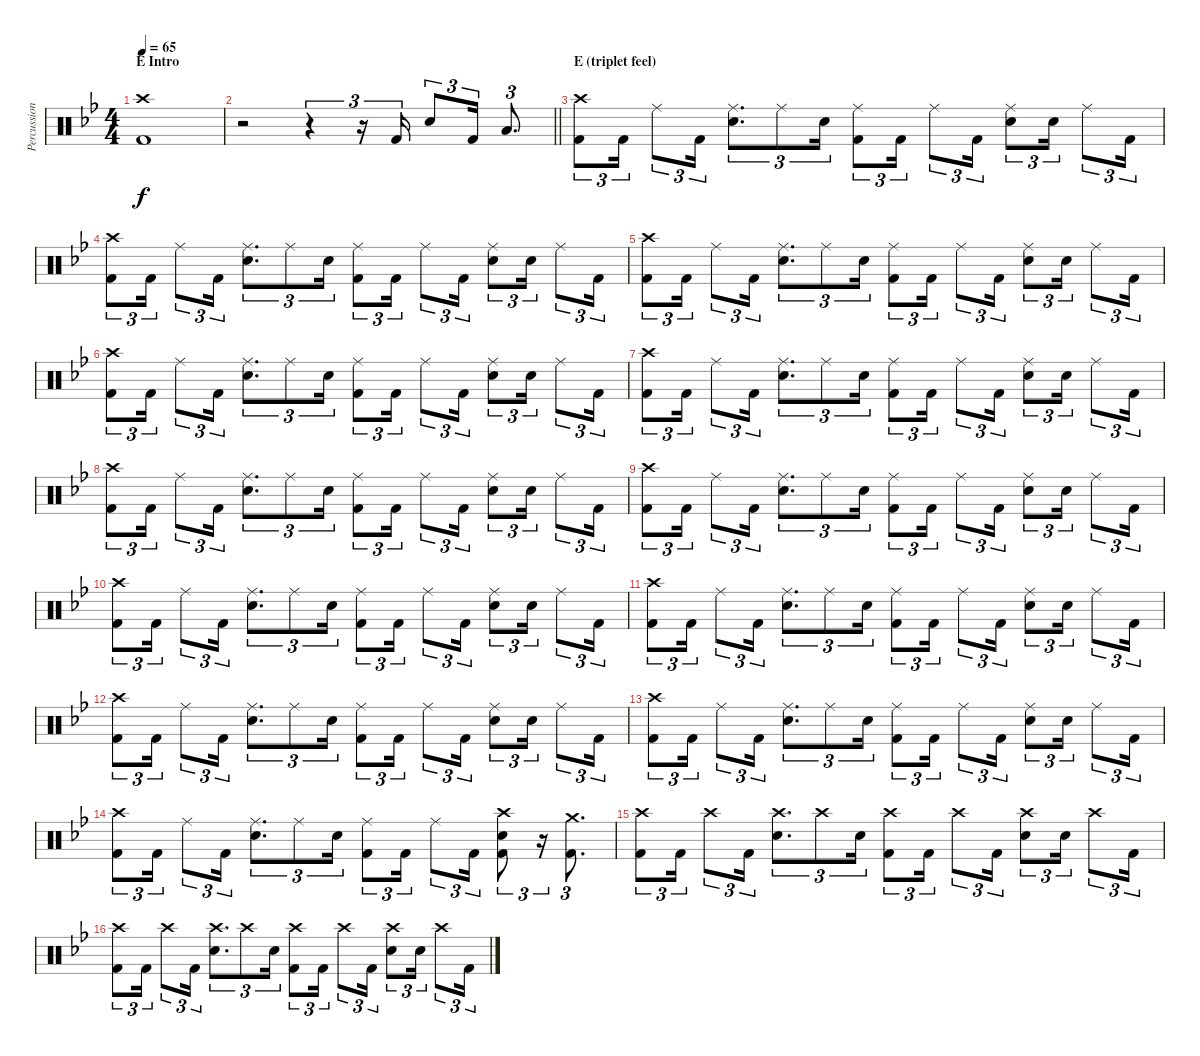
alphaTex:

\track ("Percussion" "Percussion") {instrument percussion}
\staff {score}
\articulation defaults
\ts (4 4)
\section ("" "E Intro")
\tempo 65
\clef neutral
\ks bb
("Crash high (hit)" "Kick (hit) 2").1{dy f} |
\barLineRight lightlight
r.2 r.4{tu (3 2)} r.16{tu (3 2)} "Kick (hit) 2".16{tu (3 2)} "Snare (hit) 2".8{tu (3 2)} "Kick (hit) 2".16{tu (3 2)} "Low Tom (hit)".8{d tu (3 2)} |
\section ("" "E (triplet feel)")
("Kick (hit) 2" "Crash high (hit)").8{tu (3 2)} "Kick (hit) 2".16{tu (3 2)} "Ride (middle)".8{tu (3 2)} "Kick (hit) 2".16{tu (3 2)} ("Snare (hit) 2" "Ride (middle)").8{d tu (3 2)} "Ride (middle)".8{tu (3 2)} "Snare (hit) 2".16{tu (3 2)} ("Kick (hit) 2" "Ride (middle)").8{tu (3 2)} "Kick (hit) 2".16{tu (3 2)} "Ride (middle)".8{tu (3 2)} "Kick (hit) 2".16{tu (3 2)} ("Ride (middle)" "Snare (hit) 2").8{tu (3 2)} "Snare (hit) 2".16{tu (3 2)} "Ride (middle)".8{tu (3 2)} "Kick (hit) 2".16{tu (3 2)} |
("Kick (hit) 2" "Crash high (hit)").8{tu (3 2)} "Kick (hit) 2".16{tu (3 2)} "Ride (middle)".8{tu (3 2)} "Kick (hit) 2".16{tu (3 2)} ("Snare (hit) 2" "Ride (middle)").8{d tu (3 2)} "Ride (middle)".8{tu (3 2)} "Snare (hit) 2".16{tu (3 2)} ("Kick (hit) 2" "Ride (middle)").8{tu (3 2)} "Kick (hit) 2".16{tu (3 2)} "Ride (middle)".8{tu (3 2)} "Kick (hit) 2".16{tu (3 2)} ("Ride (middle)" "Snare (hit) 2").8{tu (3 2)} "Snare (hit) 2".16{tu (3 2)} "Ride (middle)".8{tu (3 2)} "Kick (hit) 2".16{tu (3 2)} |
("Kick (hit) 2" "Crash high (hit)").8{tu (3 2)} "Kick (hit) 2".16{tu (3 2)} "Ride (middle)".8{tu (3 2)} "Kick (hit) 2".16{tu (3 2)} ("Snare (hit) 2" "Ride (middle)").8{d tu (3 2)} "Ride (middle)".8{tu (3 2)} "Snare (hit) 2".16{tu (3 2)} ("Kick (hit) 2" "Ride (middle)").8{tu (3 2)} "Kick (hit) 2".16{tu (3 2)} "Ride (middle)".8{tu (3 2)} "Kick (hit) 2".16{tu (3 2)} ("Ride (middle)" "Snare (hit) 2").8{tu (3 2)} "Snare (hit) 2".16{tu (3 2)} "Ride (middle)".8{tu (3 2)} "Kick (hit) 2".16{tu (3 2)} |
("Kick (hit) 2" "Crash high (hit)").8{tu (3 2)} "Kick (hit) 2".16{tu (3 2)} "Ride (middle)".8{tu (3 2)} "Kick (hit) 2".16{tu (3 2)} ("Snare (hit) 2" "Ride (middle)").8{d tu (3 2)} "Ride (middle)".8{tu (3 2)} "Snare (hit) 2".16{tu (3 2)} ("Kick (hit) 2" "Ride (middle)").8{tu (3 2)} "Kick (hit) 2".16{tu (3 2)} "Ride (middle)".8{tu (3 2)} "Kick (hit) 2".16{tu (3 2)} ("Ride (middle)" "Snare (hit) 2").8{tu (3 2)} "Snare (hit) 2".16{tu (3 2)} "Ride (middle)".8{tu (3 2)} "Kick (hit) 2".16{tu (3 2)} |
("Kick (hit) 2" "Crash high (hit)").8{tu (3 2)} "Kick (hit) 2".16{tu (3 2)} "Ride (middle)".8{tu (3 2)} "Kick (hit) 2".16{tu (3 2)} ("Snare (hit) 2" "Ride (middle)").8{d tu (3 2)} "Ride (middle)".8{tu (3 2)} "Snare (hit) 2".16{tu (3 2)} ("Kick (hit) 2" "Ride (middle)").8{tu (3 2)} "Kick (hit) 2".16{tu (3 2)} "Ride (middle)".8{tu (3 2)} "Kick (hit) 2".16{tu (3 2)} ("Ride (middle)" "Snare (hit) 2").8{tu (3 2)} "Snare (hit) 2".16{tu (3 2)} "Ride (middle)".8{tu (3 2)} "Kick (hit) 2".16{tu (3 2)} |
("Kick (hit) 2" "Crash high (hit)").8{tu (3 2)} "Kick (hit) 2".16{tu (3 2)} "Ride (middle)".8{tu (3 2)} "Kick (hit) 2".16{tu (3 2)} ("Snare (hit) 2" "Ride (middle)").8{d tu (3 2)} "Ride (middle)".8{tu (3 2)} "Snare (hit) 2".16{tu (3 2)} ("Kick (hit) 2" "Ride (middle)").8{tu (3 2)} "Kick (hit) 2".16{tu (3 2)} "Ride (middle)".8{tu (3 2)} "Kick (hit) 2".16{tu (3 2)} ("Ride (middle)" "Snare (hit) 2").8{tu (3 2)} "Snare (hit) 2".16{tu (3 2)} "Ride (middle)".8{tu (3 2)} "Kick (hit) 2".16{tu (3 2)} |
("Kick (hit) 2" "Crash high (hit)").8{tu (3 2)} "Kick (hit) 2".16{tu (3 2)} "Ride (middle)".8{tu (3 2)} "Kick (hit) 2".16{tu (3 2)} ("Snare (hit) 2" "Ride (middle)").8{d tu (3 2)} "Ride (middle)".8{tu (3 2)} "Snare (hit) 2".16{tu (3 2)} ("Kick (hit) 2" "Ride (middle)").8{tu (3 2)} "Kick (hit) 2".16{tu (3 2)} "Ride (middle)".8{tu (3 2)} "Kick (hit) 2".16{tu (3 2)} ("Ride (middle)" "Snare (hit) 2").8{tu (3 2)} "Snare (hit) 2".16{tu (3 2)} "Ride (middle)".8{tu (3 2)} "Kick (hit) 2".16{tu (3 2)} |
("Kick (hit) 2" "Crash high (hit)").8{tu (3 2)} "Kick (hit) 2".16{tu (3 2)} "Ride (middle)".8{tu (3 2)} "Kick (hit) 2".16{tu (3 2)} ("Snare (hit) 2" "Ride (middle)").8{d tu (3 2)} "Ride (middle)".8{tu (3 2)} "Snare (hit) 2".16{tu (3 2)} ("Kick (hit) 2" "Ride (middle)").8{tu (3 2)} "Kick (hit) 2".16{tu (3 2)} "Ride (middle)".8{tu (3 2)} "Kick (hit) 2".16{tu (3 2)} ("Ride (middle)" "Snare (hit) 2").8{tu (3 2)} "Snare (hit) 2".16{tu (3 2)} "Ride (middle)".8{tu (3 2)} "Kick (hit) 2".16{tu (3 2)} |
("Kick (hit) 2" "Crash high (hit)").8{tu (3 2)} "Kick (hit) 2".16{tu (3 2)} "Ride (middle)".8{tu (3 2)} "Kick (hit) 2".16{tu (3 2)} ("Snare (hit) 2" "Ride (middle)").8{d tu (3 2)} "Ride (middle)".8{tu (3 2)} "Snare (hit) 2".16{tu (3 2)} ("Kick (hit) 2" "Ride (middle)").8{tu (3 2)} "Kick (hit) 2".16{tu (3 2)} "Ride (middle)".8{tu (3 2)} "Kick (hit) 2".16{tu (3 2)} ("Ride (middle)" "Snare (hit) 2").8{tu (3 2)} "Snare (hit) 2".16{tu (3 2)} "Ride (middle)".8{tu (3 2)} "Kick (hit) 2".16{tu (3 2)} |
("Kick (hit) 2" "Crash high (hit)").8{tu (3 2)} "Kick (hit) 2".16{tu (3 2)} "Ride (middle)".8{tu (3 2)} "Kick (hit) 2".16{tu (3 2)} ("Snare (hit) 2" "Ride (middle)").8{d tu (3 2)} "Ride (middle)".8{tu (3 2)} "Snare (hit) 2".16{tu (3 2)} ("Kick (hit) 2" "Ride (middle)").8{tu (3 2)} "Kick (hit) 2".16{tu (3 2)} "Ride (middle)".8{tu (3 2)} "Kick (hit) 2".16{tu (3 2)} ("Ride (middle)" "Snare (hit) 2").8{tu (3 2)} "Snare (hit) 2".16{tu (3 2)} "Ride (middle)".8{tu (3 2)} "Kick (hit) 2".16{tu (3 2)} |
("Kick (hit) 2" "Crash high (hit)").8{tu (3 2)} "Kick (hit) 2".16{tu (3 2)} "Ride (middle)".8{tu (3 2)} "Kick (hit) 2".16{tu (3 2)} ("Snare (hit) 2" "Ride (middle)").8{d tu (3 2)} "Ride (middle)".8{tu (3 2)} "Snare (hit) 2".16{tu (3 2)} ("Kick (hit) 2" "Ride (middle)").8{tu (3 2)} "Kick (hit) 2".16{tu (3 2)} "Ride (middle)".8{tu (3 2)} "Kick (hit) 2".16{tu (3 2)} ("Ride (middle)" "Snare (hit) 2").8{tu (3 2)} "Snare (hit) 2".16{tu (3 2)} "Ride (middle)".8{tu (3 2)} "Kick (hit) 2".16{tu (3 2)} |
("Kick (hit) 2" "Crash high (hit)").8{tu (3 2)} "Kick (hit) 2".16{tu (3 2)} "Ride (middle)".8{tu (3 2)} "Kick (hit) 2".16{tu (3 2)} ("Snare (hit) 2" "Ride (middle)").8{d tu (3 2)} "Ride (middle)".8{tu (3 2)} "Snare (hit) 2".16{tu (3 2)} ("Kick (hit) 2" "Ride (middle)").8{tu (3 2)} "Kick (hit) 2".16{tu (3 2)} "Ride (middle)".8{tu (3 2)} "Kick (hit) 2".16{tu (3 2)} ("Crash high (hit)" "Snare (hit) 2" "Kick (hit) 2").8{tu (3 2)} r.16{tu (3 2)} ("Crash medium (hit)" "Kick (hit) 2").8{d tu (3 2)} |
("Kick (hit) 2" "Crash high (hit)").8{tu (3 2)} "Kick (hit) 2".16{tu (3 2)} "Crash high (hit)".8{tu (3 2)} "Kick (hit) 2".16{tu (3 2)} ("Snare (hit) 2" "Crash high (hit)").8{d tu (3 2)} "Crash high (hit)".8{tu (3 2)} "Snare (hit) 2".16{tu (3 2)} ("Kick (hit) 2" "Crash high (hit)").8{tu (3 2)} "Kick (hit) 2".16{tu (3 2)} "Crash high (hit)".8{tu (3 2)} "Kick (hit) 2".16{tu (3 2)} ("Crash high (hit)" "Snare (hit) 2").8{tu (3 2)} "Snare (hit) 2".16{tu (3 2)} "Crash high (hit)".8{tu (3 2)} "Kick (hit) 2".16{tu (3 2)} |
("Kick (hit) 2" "Crash high (hit)").8{tu (3 2)} "Kick (hit) 2".16{tu (3 2)} "Crash high (hit)".8{tu (3 2)} "Kick (hit) 2".16{tu (3 2)} ("Snare (hit) 2" "Crash high (hit)").8{d tu (3 2)} "Crash high (hit)".8{tu (3 2)} "Snare (hit) 2".16{tu (3 2)} ("Kick (hit) 2" "Crash high (hit)").8{tu (3 2)} "Kick (hit) 2".16{tu (3 2)} "Crash high (hit)".8{tu (3 2)} "Kick (hit) 2".16{tu (3 2)} ("Crash high (hit)" "Snare (hit) 2").8{tu (3 2)} "Snare (hit) 2".16{tu (3 2)} "Crash high (hit)".8{tu (3 2)} "Kick (hit) 2".16{tu (3 2)}
